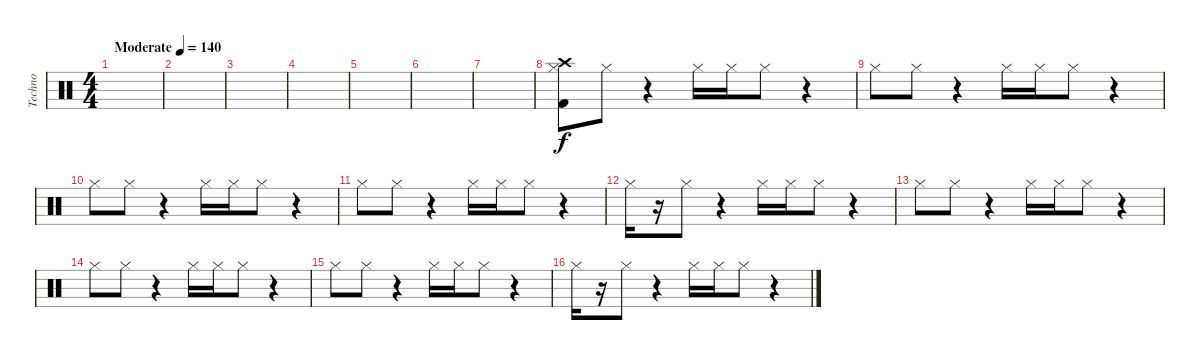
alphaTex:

\track ("Techno" "Techno") {instrument percussion}
\staff {score}
\articulation defaults
\ts (4 4)
\tempo (140 "Moderate")
\clef neutral
\ks c
|
|
|
|
|
|
|
("Crash high (hit)" "Hi-Hat (closed)" "Kick (hit) 2").8 "Hi-Hat (closed)".8 r.4 "Hi-Hat (closed)".16 "Hi-Hat (closed)".16 "Hi-Hat (closed)".8 r.4 |
"Hi-Hat (closed)".8 "Hi-Hat (closed)".8 r.4 "Hi-Hat (closed)".16 "Hi-Hat (closed)".16 "Hi-Hat (closed)".8 r.4 |
"Hi-Hat (closed)".8 "Hi-Hat (closed)".8 r.4 "Hi-Hat (closed)".16 "Hi-Hat (closed)".16 "Hi-Hat (closed)".8 r.4 |
"Hi-Hat (closed)".8 "Hi-Hat (closed)".8 r.4 "Hi-Hat (closed)".16 "Hi-Hat (closed)".16 "Hi-Hat (closed)".8 r.4 |
"Hi-Hat (closed)".16 r.16 "Hi-Hat (closed)".8 r.4 "Hi-Hat (closed)".16 "Hi-Hat (closed)".16 "Hi-Hat (closed)".8 r.4 |
"Hi-Hat (closed)".8 "Hi-Hat (closed)".8 r.4 "Hi-Hat (closed)".16 "Hi-Hat (closed)".16 "Hi-Hat (closed)".8 r.4 |
"Hi-Hat (closed)".8 "Hi-Hat (closed)".8 r.4 "Hi-Hat (closed)".16 "Hi-Hat (closed)".16 "Hi-Hat (closed)".8 r.4 |
"Hi-Hat (closed)".8 "Hi-Hat (closed)".8 r.4 "Hi-Hat (closed)".16 "Hi-Hat (closed)".16 "Hi-Hat (closed)".8 r.4 |
"Hi-Hat (closed)".16 r.16 "Hi-Hat (closed)".8 r.4 "Hi-Hat (closed)".16 "Hi-Hat (closed)".16 "Hi-Hat (closed)".8 r.4
